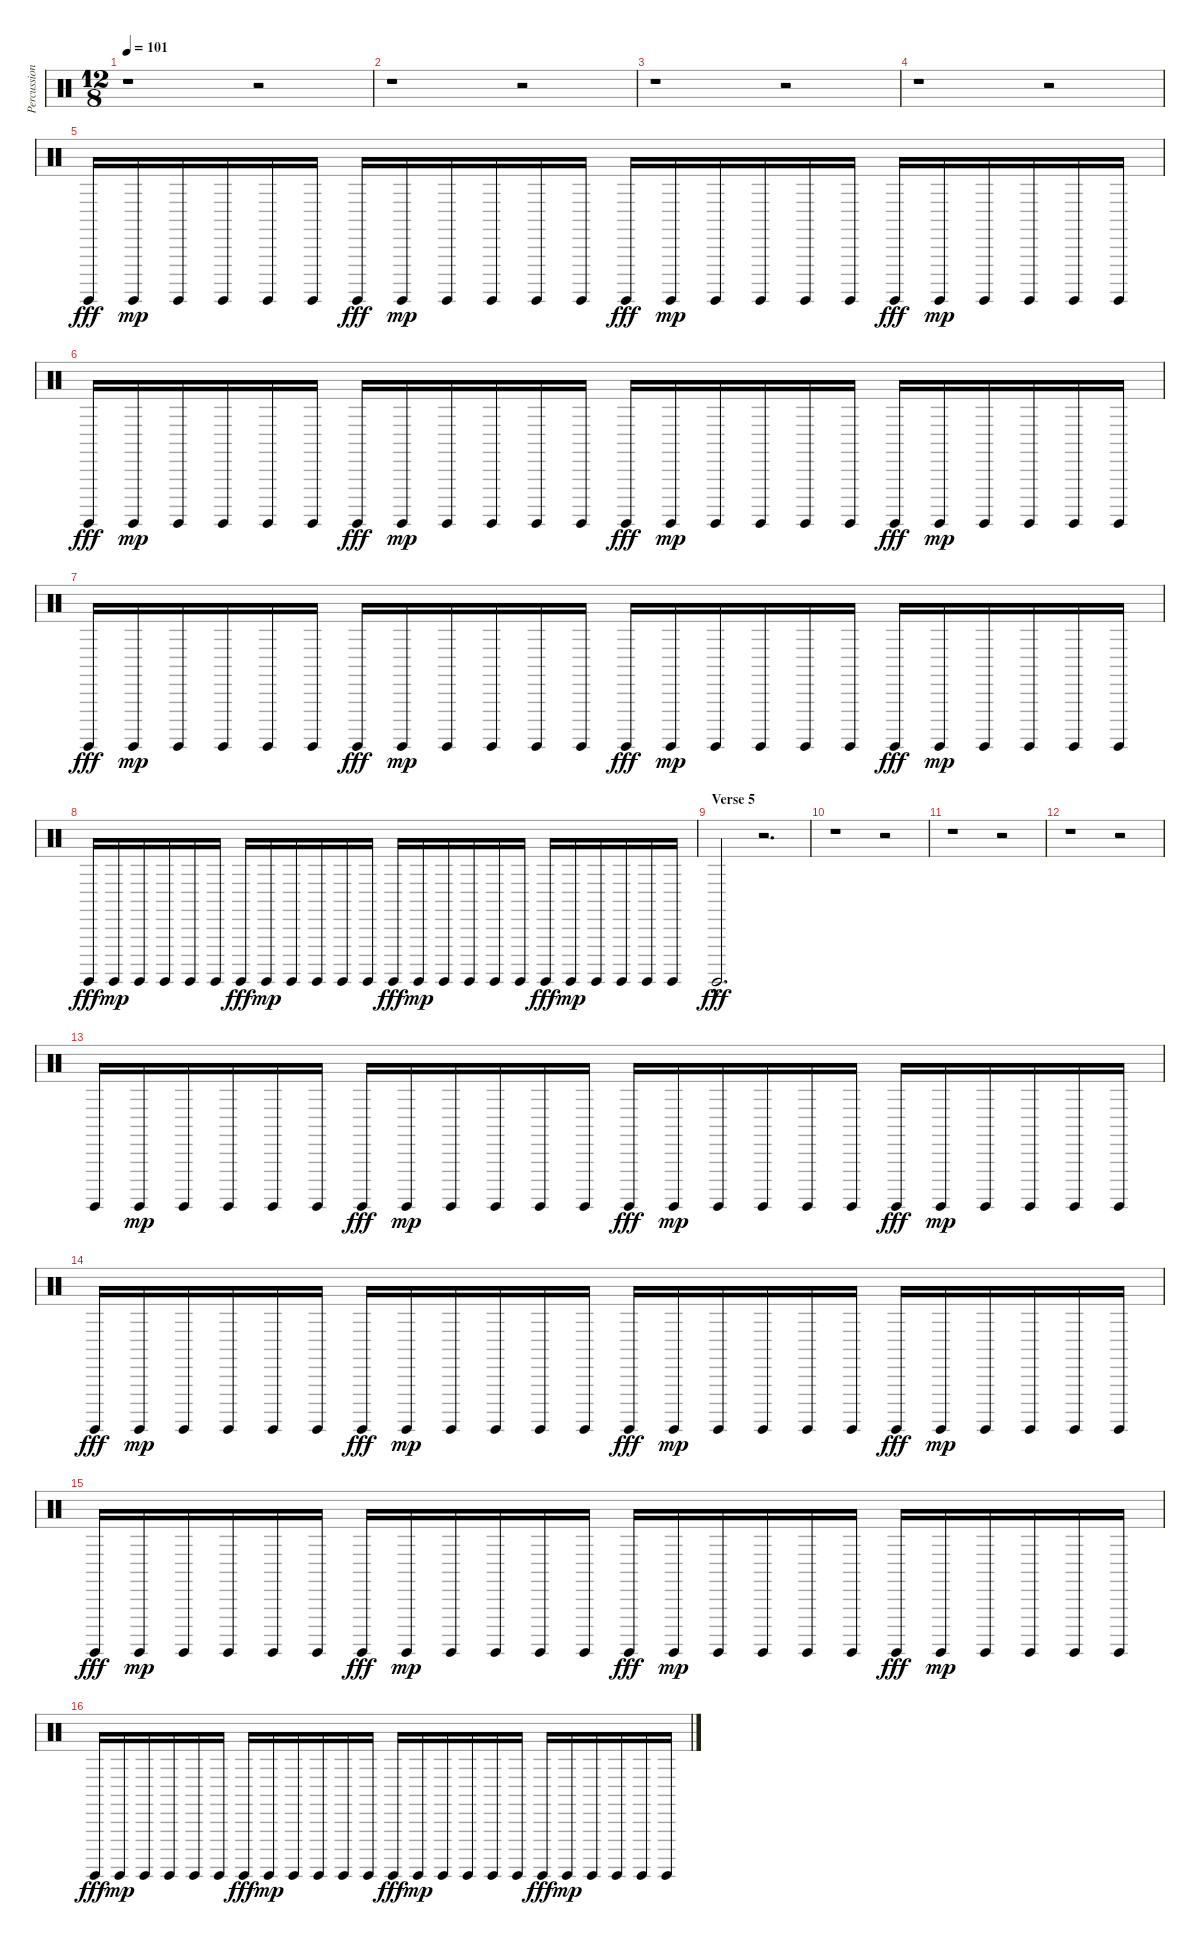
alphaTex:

\track ("Percussion" "Percussion") {instrument percussion}
\staff {score}
\articulation defaults
\ts (12 8)
\tempo 101
\clef neutral
\ks c
r.1{dy fff} r.2 |
r.1 r.2 |
r.1 r.2 |
r.1 r.2 |
"Surdo (hit)".16 "Surdo (hit)".16{dy mp} "Surdo (hit)".16 "Surdo (hit)".16 "Surdo (hit)".16 "Surdo (hit)".16 "Surdo (hit)".16{dy fff} "Surdo (hit)".16{dy mp} "Surdo (hit)".16 "Surdo (hit)".16 "Surdo (hit)".16 "Surdo (hit)".16 "Surdo (hit)".16{dy fff} "Surdo (hit)".16{dy mp} "Surdo (hit)".16 "Surdo (hit)".16 "Surdo (hit)".16 "Surdo (hit)".16 "Surdo (hit)".16{dy fff} "Surdo (hit)".16{dy mp} "Surdo (hit)".16 "Surdo (hit)".16 "Surdo (hit)".16 "Surdo (hit)".16 |
"Surdo (hit)".16{dy fff} "Surdo (hit)".16{dy mp} "Surdo (hit)".16 "Surdo (hit)".16 "Surdo (hit)".16 "Surdo (hit)".16 "Surdo (hit)".16{dy fff} "Surdo (hit)".16{dy mp} "Surdo (hit)".16 "Surdo (hit)".16 "Surdo (hit)".16 "Surdo (hit)".16 "Surdo (hit)".16{dy fff} "Surdo (hit)".16{dy mp} "Surdo (hit)".16 "Surdo (hit)".16 "Surdo (hit)".16 "Surdo (hit)".16 "Surdo (hit)".16{dy fff} "Surdo (hit)".16{dy mp} "Surdo (hit)".16 "Surdo (hit)".16 "Surdo (hit)".16 "Surdo (hit)".16 |
"Surdo (hit)".16{dy fff} "Surdo (hit)".16{dy mp} "Surdo (hit)".16 "Surdo (hit)".16 "Surdo (hit)".16 "Surdo (hit)".16 "Surdo (hit)".16{dy fff} "Surdo (hit)".16{dy mp} "Surdo (hit)".16 "Surdo (hit)".16 "Surdo (hit)".16 "Surdo (hit)".16 "Surdo (hit)".16{dy fff} "Surdo (hit)".16{dy mp} "Surdo (hit)".16 "Surdo (hit)".16 "Surdo (hit)".16 "Surdo (hit)".16 "Surdo (hit)".16{dy fff} "Surdo (hit)".16{dy mp} "Surdo (hit)".16 "Surdo (hit)".16 "Surdo (hit)".16 "Surdo (hit)".16 |
"Surdo (hit)".16{dy fff} "Surdo (hit)".16{dy mp} "Surdo (hit)".16 "Surdo (hit)".16 "Surdo (hit)".16 "Surdo (hit)".16 "Surdo (hit)".16{dy fff} "Surdo (hit)".16{dy mp} "Surdo (hit)".16 "Surdo (hit)".16 "Surdo (hit)".16 "Surdo (hit)".16 "Surdo (hit)".16{dy fff} "Surdo (hit)".16{dy mp} "Surdo (hit)".16 "Surdo (hit)".16 "Surdo (hit)".16 "Surdo (hit)".16 "Surdo (hit)".16{dy fff} "Surdo (hit)".16{dy mp} "Surdo (hit)".16 "Surdo (hit)".16 "Surdo (hit)".16 "Surdo (hit)".16 |
\section ("" "Verse 5")
"Surdo (hit)"{hac}.2{d dy fff} r.2{d} |
r.1 r.2 |
r.1 r.2 |
r.1 r.2 |
"Surdo (hit)".16 "Surdo (hit)".16{dy mp} "Surdo (hit)".16 "Surdo (hit)".16 "Surdo (hit)".16 "Surdo (hit)".16 "Surdo (hit)".16{dy fff} "Surdo (hit)".16{dy mp} "Surdo (hit)".16 "Surdo (hit)".16 "Surdo (hit)".16 "Surdo (hit)".16 "Surdo (hit)".16{dy fff} "Surdo (hit)".16{dy mp} "Surdo (hit)".16 "Surdo (hit)".16 "Surdo (hit)".16 "Surdo (hit)".16 "Surdo (hit)".16{dy fff} "Surdo (hit)".16{dy mp} "Surdo (hit)".16 "Surdo (hit)".16 "Surdo (hit)".16 "Surdo (hit)".16 |
"Surdo (hit)".16{dy fff} "Surdo (hit)".16{dy mp} "Surdo (hit)".16 "Surdo (hit)".16 "Surdo (hit)".16 "Surdo (hit)".16 "Surdo (hit)".16{dy fff} "Surdo (hit)".16{dy mp} "Surdo (hit)".16 "Surdo (hit)".16 "Surdo (hit)".16 "Surdo (hit)".16 "Surdo (hit)".16{dy fff} "Surdo (hit)".16{dy mp} "Surdo (hit)".16 "Surdo (hit)".16 "Surdo (hit)".16 "Surdo (hit)".16 "Surdo (hit)".16{dy fff} "Surdo (hit)".16{dy mp} "Surdo (hit)".16 "Surdo (hit)".16 "Surdo (hit)".16 "Surdo (hit)".16 |
"Surdo (hit)".16{dy fff} "Surdo (hit)".16{dy mp} "Surdo (hit)".16 "Surdo (hit)".16 "Surdo (hit)".16 "Surdo (hit)".16 "Surdo (hit)".16{dy fff} "Surdo (hit)".16{dy mp} "Surdo (hit)".16 "Surdo (hit)".16 "Surdo (hit)".16 "Surdo (hit)".16 "Surdo (hit)".16{dy fff} "Surdo (hit)".16{dy mp} "Surdo (hit)".16 "Surdo (hit)".16 "Surdo (hit)".16 "Surdo (hit)".16 "Surdo (hit)".16{dy fff} "Surdo (hit)".16{dy mp} "Surdo (hit)".16 "Surdo (hit)".16 "Surdo (hit)".16 "Surdo (hit)".16 |
"Surdo (hit)".16{dy fff} "Surdo (hit)".16{dy mp} "Surdo (hit)".16 "Surdo (hit)".16 "Surdo (hit)".16 "Surdo (hit)".16 "Surdo (hit)".16{dy fff} "Surdo (hit)".16{dy mp} "Surdo (hit)".16 "Surdo (hit)".16 "Surdo (hit)".16 "Surdo (hit)".16 "Surdo (hit)".16{dy fff} "Surdo (hit)".16{dy mp} "Surdo (hit)".16 "Surdo (hit)".16 "Surdo (hit)".16 "Surdo (hit)".16 "Surdo (hit)".16{dy fff} "Surdo (hit)".16{dy mp} "Surdo (hit)".16 "Surdo (hit)".16 "Surdo (hit)".16 "Surdo (hit)".16
